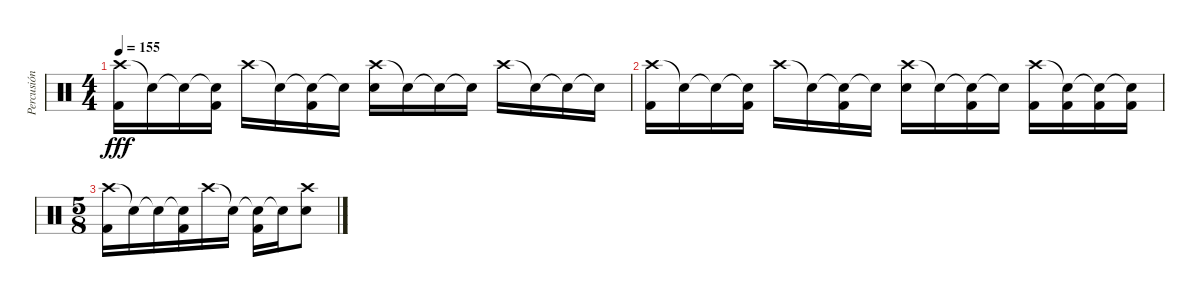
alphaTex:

\track ("Percusión" "Percusión") {instrument percussion}
\staff {score}
\articulation defaults
\ts (4 4)
\tempo 155
\clef neutral
\ks c
("Crash high (hit)" "Kick (hit) 2").16{dy fff} "Snare (hit)"{t}.16 "Snare (hit)"{t}.16 ("Snare (hit)"{t} "Kick (hit) 2").16 "Crash high (hit)".16 "Snare (hit)"{t}.16 ("Snare (hit)"{t} "Kick (hit) 2").16 "Snare (hit)"{t}.16 ("Crash high (hit)" "Electric Snare (hit)").16 "Snare (hit)"{t}.16 "Snare (hit)"{t}.16 "Snare (hit)"{t}.16 "Crash high (hit)".16 "Snare (hit)"{t}.16 "Snare (hit)"{t}.16 "Snare (hit)"{t}.16 |
("Crash high (hit)" "Kick (hit) 2").16 "Snare (hit)"{t}.16 "Snare (hit)"{t}.16 ("Snare (hit)"{t} "Kick (hit) 2").16 "Crash high (hit)".16 "Snare (hit)"{t}.16 ("Snare (hit)"{t} "Kick (hit) 2").16 "Snare (hit)"{t}.16 ("Crash high (hit)" "Electric Snare (hit)").16 "Snare (hit)"{t}.16 ("Snare (hit)"{t} "Kick (hit) 2").16 "Snare (hit)"{t}.16 ("Crash high (hit)" "Kick (hit) 2").16 ("Snare (hit)"{t} "Kick (hit) 2").16 ("Snare (hit)"{t} "Kick (hit) 2").16 ("Snare (hit)"{t} "Kick (hit) 2").16 |
\ts (5 8)
("Crash high (hit)" "Kick (hit) 2").16 "Snare (hit)"{t}.16 "Snare (hit)"{t}.16 ("Snare (hit)"{t} "Kick (hit) 2").16 "Crash high (hit)".16 "Snare (hit)"{t}.16 ("Snare (hit)"{t} "Kick (hit) 2").16 "Snare (hit)"{t}.16 ("Crash high (hit)" "Electric Snare (hit)").8
